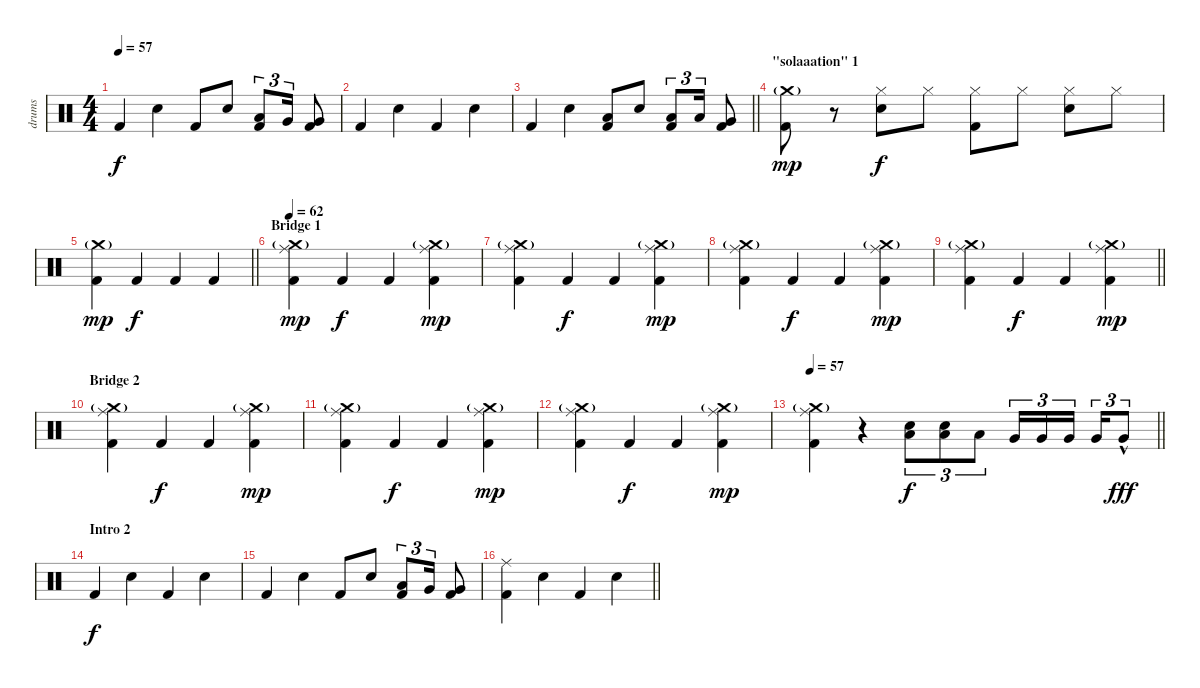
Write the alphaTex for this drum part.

\track ("drums" "drums") {instrument percussion}
\staff {score}
\articulation defaults
\ts (4 4)
\tempo 57
\clef neutral
\ks c "Kick (hit) 2".4{dy f} "Electric Snare (hit)".4 "Kick (hit) 2".8 "Electric Snare (hit)".8
("Low Tom (hit)" "Kick (hit) 2").8{tu (3 2)} "Very Low Tom (hit)".16{tu (3 2)} ("Very Low Tom (hit)" "Kick (hit) 2").8 |
"Kick (hit) 2".4 "Electric Snare (hit)".4 "Kick (hit) 2".4 "Electric Snare (hit)".4 |
\barLineRight lightlight "Kick (hit) 2".4 "Electric Snare (hit)".4
("Low Tom (hit)" "Kick (hit) 2").8 "Electric Snare (hit)".8 ("Low Tom (hit)" "Kick (hit) 2").8{tu (3 2)} "Low Tom (hit)".16{tu (3 2)} ("Very Low Tom (hit)" "Kick (hit) 2").8 |
\section ("" "\"solaaation\" 1")
("Crash medium (hit)"{g} "Kick (hit) 2").8{dy mp} r.8 ("Hi-Hat (closed)" "Electric Snare (hit)").8{dy f} "Hi-Hat (closed)".8 ("Hi-Hat (closed)" "Kick (hit) 2").8 "Hi-Hat (closed)".8 ("Hi-Hat (closed)" "Electric Snare (hit)").8 "Hi-Hat (closed)".8 |
\barLineRight lightlight
("Crash medium (hit)"{g} "Kick (hit) 2").4{dy mp} "Kick (hit) 2".4{dy f} "Kick (hit) 2".4 "Kick (hit) 2".4 |
\section ("" "Bridge 1")
\tempo 62
("Crash medium (hit)"{g} "Ride (middle)" "Kick (hit) 2").4{dy mp} "Kick (hit) 2".4{dy f} "Kick (hit) 2".4 ("Crash medium (hit)"{g} "Ride (middle)" "Kick (hit) 2").4{dy mp} |
("Crash medium (hit)"{g} "Ride (middle)" "Kick (hit) 2").4 "Kick (hit) 2".4{dy f} "Kick (hit) 2".4 ("Crash medium (hit)"{g} "Ride (middle)" "Kick (hit) 2").4{dy mp} |
("Crash medium (hit)"{g} "Ride (middle)" "Kick (hit) 2").4 "Kick (hit) 2".4{dy f} "Kick (hit) 2".4 ("Crash medium (hit)"{g} "Ride (middle)" "Kick (hit) 2").4{dy mp} |
\barLineRight lightlight
("Crash medium (hit)"{g} "Ride (middle)" "Kick (hit) 2").4 "Kick (hit) 2".4{dy f} "Kick (hit) 2".4 ("Crash medium (hit)"{g} "Ride (middle)" "Kick (hit) 2").4{dy mp} |
\section ("" "Bridge 2")
("Crash medium (hit)"{g} "Ride (middle)" "Kick (hit) 2").4 "Kick (hit) 2".4{dy f} "Kick (hit) 2".4 ("Crash medium (hit)"{g} "Ride (middle)" "Kick (hit) 2").4{dy mp} |
("Crash medium (hit)"{g} "Ride (middle)" "Kick (hit) 2").4 "Kick (hit) 2".4{dy f} "Kick (hit) 2".4 ("Crash medium (hit)"{g} "Ride (middle)" "Kick (hit) 2").4{dy mp} |
("Crash medium (hit)"{g} "Ride (middle)" "Kick (hit) 2").4 "Kick (hit) 2".4{dy f} "Kick (hit) 2".4 ("Crash medium (hit)"{g} "Ride (middle)" "Kick (hit) 2").4{dy mp} |
\tempo 57
\barLineRight lightlight
("Crash medium (hit)"{g} "Ride (middle)" "Kick (hit) 2").4 r.4 ("Low Tom (hit)" "Electric Snare (hit)").8{tu (3 2) dy f} ("Low Tom (hit)" "Electric Snare (hit)").8{tu (3 2)} "Low Tom (hit)".8{tu (3 2)} "Very Low Tom (hit)".16{tu (3 2)} "Very Low Tom (hit)".16{tu (3 2)} "Very Low Tom (hit)".16{tu (3 2) beam splitsecondary} "Very Low Tom (hit)".16{tu (3 2)} "Very Low Tom (hit)"{hac}.8{tu (3 2) dy fff} |
\section ("" "Intro 2")
"Kick (hit) 2".4{dy f} "Electric Snare (hit)".4 "Kick (hit) 2".4 "Electric Snare (hit)".4 |
"Kick (hit) 2".4 "Electric Snare (hit)".4 "Kick (hit) 2".8 "Electric Snare (hit)".8 ("Low Tom (hit)" "Kick (hit) 2").8{tu (3 2)} "Very Low Tom (hit)".16{tu (3 2)} ("Very Low Tom (hit)" "Kick (hit) 2").8 |
\barLineRight lightlight
("Ride (middle)" "Kick (hit) 2").4 "Electric Snare (hit)".4 "Kick (hit) 2".4 "Electric Snare (hit)".4
